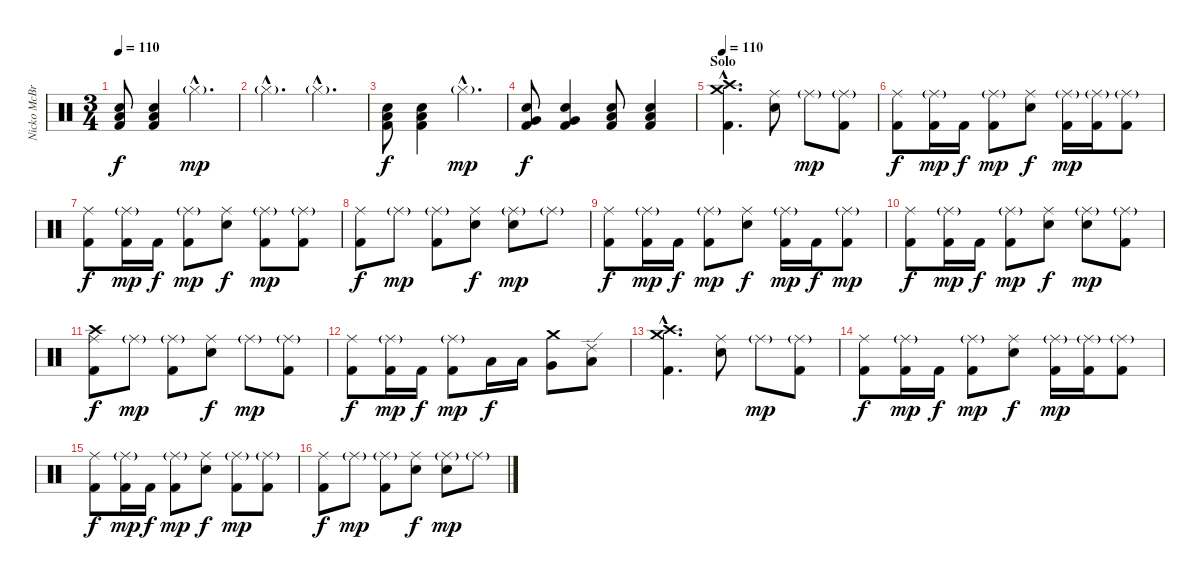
\track ("Nicko McBrain" "Nicko McBr") {instrument percussion}
\staff {score}
\articulation defaults
\ts (3 4)
\tempo 110
\clef neutral
\ks c
("Electric Snare (hit)" "Low Floor Tom (hit)" "Kick (hit) 2").8{dy f} ("Electric Snare (hit)" "Low Floor Tom (hit)" "Kick (hit) 2").4 "Hi-Hat (closed)"{g hac}.4{d dy mp} |
"Hi-Hat (closed)"{g hac}.4{d} "Hi-Hat (closed)"{g hac}.4{d} |
("Electric Snare (hit)" "Low Tom (hit)" "Kick (hit) 2").8{dy f} ("Electric Snare (hit)" "Low Tom (hit)" "Kick (hit) 2").4 "Hi-Hat (closed)"{g hac}.4{d dy mp} |
("Electric Snare (hit)" "Very Low Tom (hit)" "Kick (hit) 2").8{dy f} ("Electric Snare (hit)" "Very Low Tom (hit)" "Kick (hit) 2").4 ("Electric Snare (hit)" "Low Floor Tom (hit)" "Kick (hit) 2").8 ("Electric Snare (hit)" "Low Floor Tom (hit)" "Kick (hit) 2").4 |
\section ("" "Solo")
\tempo 110
("Crash medium (hit)"{hac} "Crash high (hit)"{hac} "Kick (hit) 2"{hac}).4{d} ("Ride (middle)" "Electric Snare (hit)").8 "Ride (middle)"{g}.8{dy mp} ("Ride (middle)"{g} "Kick (hit) 2").8 |
("Ride (middle)" "Kick (hit) 2").8{dy f} ("Ride (middle)"{g} "Kick (hit) 2").16{dy mp} "Kick (hit) 2".16{dy f} ("Ride (middle)"{g} "Kick (hit) 2").8{dy mp} ("Ride (middle)" "Electric Snare (hit)").8{dy f} ("Ride (middle)"{g} "Kick (hit) 2").16{dy mp} ("Ride (middle)"{g} "Kick (hit) 2").16 ("Ride (middle)"{g} "Kick (hit) 2").8 |
("Ride (middle)" "Kick (hit) 2").8{dy f} ("Ride (middle)"{g} "Kick (hit) 2").16{dy mp} "Kick (hit) 2".16{dy f} ("Ride (middle)"{g} "Kick (hit) 2").8{dy mp} ("Ride (middle)" "Electric Snare (hit)").8{dy f} ("Ride (middle)"{g} "Kick (hit) 2").8{dy mp} ("Ride (middle)"{g} "Kick (hit) 2").8 |
("Ride (middle)" "Kick (hit) 2").8{dy f} "Ride (middle)"{g}.8{dy mp} ("Ride (middle)"{g} "Kick (hit) 2").8 ("Ride (middle)" "Electric Snare (hit)").8{dy f} ("Ride (middle)"{g} "Electric Snare (hit)").8{dy mp} "Ride (middle)"{g}.8 |
("Ride (middle)" "Kick (hit) 2").8{dy f} ("Ride (middle)"{g} "Kick (hit) 2").16{dy mp} "Kick (hit) 2".16{dy f} ("Ride (middle)"{g} "Kick (hit) 2").8{dy mp} ("Ride (middle)" "Electric Snare (hit)").8{dy f} ("Ride (middle)"{g} "Kick (hit) 2").16{dy mp} "Kick (hit) 2".16{dy f} ("Ride (middle)"{g} "Kick (hit) 2").8{dy mp} |
("Ride (middle)" "Kick (hit) 2").8{dy f} ("Ride (middle)"{g} "Kick (hit) 2").16{dy mp} "Kick (hit) 2".16{dy f} ("Ride (middle)"{g} "Kick (hit) 2").8{dy mp} ("Ride (middle)" "Electric Snare (hit)").8{dy f} ("Ride (middle)"{g} "Electric Snare (hit)").8{dy mp} ("Ride (middle)"{g} "Kick (hit) 2").8 |
("Ride (middle)" "Crash high (hit)" "Kick (hit) 2").8{dy f} "Ride (middle)"{g}.8{dy mp} ("Ride (middle)"{g} "Kick (hit) 2").8 ("Ride (middle)" "Electric Snare (hit)").8{dy f} "Ride (middle)"{g}.8{dy mp} ("Ride (middle)"{g} "Kick (hit) 2").8 |
("Ride (middle)" "Kick (hit) 2").8{dy f} ("Ride (middle)"{g} "Kick (hit) 2").16{dy mp} "Kick (hit) 2".16{dy f} ("Ride (middle)"{g} "Kick (hit) 2").8{dy mp} "Low Tom (hit)".16{dy f} "Low Tom (hit)".16 ("Very Low Tom (hit)" "Crash medium (hit)").8 ("Low Floor Tom (hit)" "Ride (edge) 2").8 |
("Crash medium (hit)"{hac} "Crash high (hit)"{hac} "Kick (hit) 2"{hac}).4{d} ("Ride (middle)" "Electric Snare (hit)").8 "Ride (middle)"{g}.8{dy mp} ("Ride (middle)"{g} "Kick (hit) 2").8 |
("Ride (middle)" "Kick (hit) 2").8{dy f} ("Ride (middle)"{g} "Kick (hit) 2").16{dy mp} "Kick (hit) 2".16{dy f} ("Ride (middle)"{g} "Kick (hit) 2").8{dy mp} ("Ride (middle)" "Electric Snare (hit)").8{dy f} ("Ride (middle)"{g} "Kick (hit) 2").16{dy mp} ("Ride (middle)"{g} "Kick (hit) 2").16 ("Ride (middle)"{g} "Kick (hit) 2").8 |
("Ride (middle)" "Kick (hit) 2").8{dy f} ("Ride (middle)"{g} "Kick (hit) 2").16{dy mp} "Kick (hit) 2".16{dy f} ("Ride (middle)"{g} "Kick (hit) 2").8{dy mp} ("Ride (middle)" "Electric Snare (hit)").8{dy f} ("Ride (middle)"{g} "Kick (hit) 2").8{dy mp} ("Ride (middle)"{g} "Kick (hit) 2").8 |
("Ride (middle)" "Kick (hit) 2").8{dy f} "Ride (middle)"{g}.8{dy mp} ("Ride (middle)"{g} "Kick (hit) 2").8 ("Ride (middle)" "Electric Snare (hit)").8{dy f} ("Ride (middle)"{g} "Electric Snare (hit)").8{dy mp} "Ride (middle)"{g}.8
